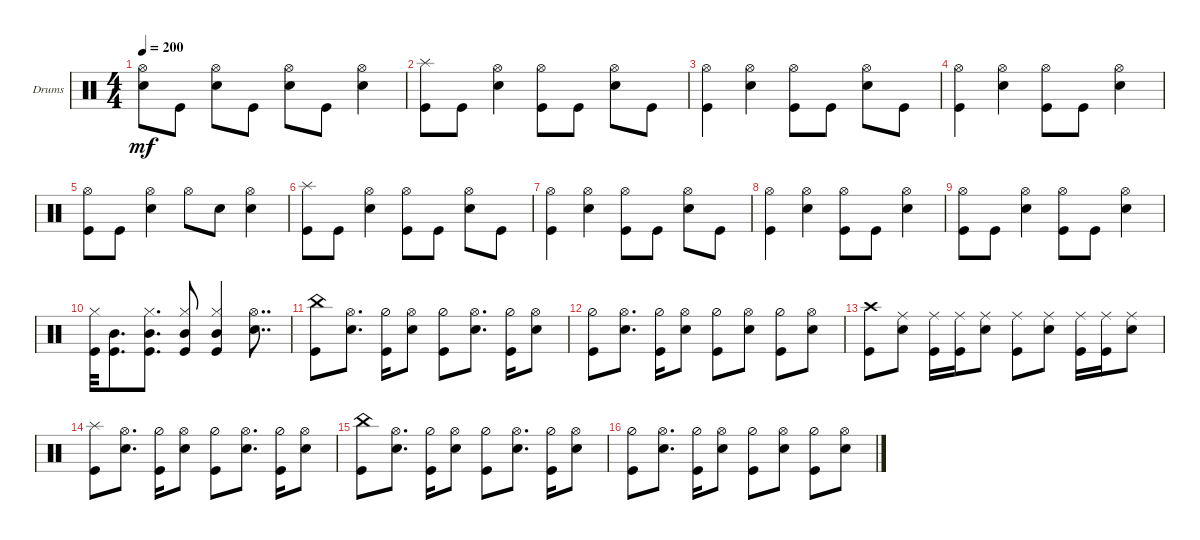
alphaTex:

\defaultSystemsLayout 4
\bracketExtendMode groupsimilarinstruments
\firstSystemTrackNameOrientation horizontal
\otherSystemsTrackNameOrientation horizontal
\track ("Hell on da drums" "Drums") {instrument percussion}
\staff {score}
\articulation defaults
\ts (4 4)
\tempo 200
\clef neutral
\ks c
("Snare (hit) 2" "Hi-Hat (open)").8{dy mf} "Kick (hit)".8 ("Snare (hit) 2" "Hi-Hat (open)").8 "Kick (hit)".8 ("Snare (hit) 2" "Hi-Hat (open)").8 "Kick (hit)".8 ("Snare (hit) 2" "Hi-Hat (open)").4 |
("Kick (hit)" "Splash (hit)").8 "Kick (hit)".8 ("Snare (hit) 2" "Hi-Hat (open)").4 ("Kick (hit)" "Hi-Hat (open)").8 "Kick (hit)".8 ("Snare (hit) 2" "Hi-Hat (open)").8 "Kick (hit)".8 |
("Kick (hit)" "Hi-Hat (open)").4 ("Snare (hit) 2" "Hi-Hat (open)").4 ("Kick (hit)" "Hi-Hat (open)").8 "Kick (hit)".8 ("Snare (hit) 2" "Hi-Hat (open)").8 "Kick (hit)".8 |
("Kick (hit)" "Hi-Hat (open)").4 ("Snare (hit) 2" "Hi-Hat (open)").4 ("Kick (hit)" "Hi-Hat (open)").8 "Kick (hit)".8 ("Snare (hit) 2" "Hi-Hat (open)").4 |
("Kick (hit)" "Hi-Hat (open)").8 "Kick (hit)".8 ("Snare (hit) 2" "Hi-Hat (open)").4 "Hi-Hat (open)".8 "Snare (hit) 2".8 ("Snare (hit) 2" "Hi-Hat (open)").4 |
("Kick (hit)" "Splash (hit)").8 "Kick (hit)".8 ("Snare (hit) 2" "Hi-Hat (open)").4 ("Kick (hit)" "Hi-Hat (open)").8 "Kick (hit)".8 ("Snare (hit) 2" "Hi-Hat (open)").8 "Kick (hit)".8 |
("Kick (hit)" "Hi-Hat (open)").4 ("Snare (hit) 2" "Hi-Hat (open)").4 ("Kick (hit)" "Hi-Hat (open)").8 "Kick (hit)".8 ("Snare (hit) 2" "Hi-Hat (open)").8 "Kick (hit)".8 |
("Kick (hit)" "Hi-Hat (open)").4 ("Snare (hit) 2" "Hi-Hat (open)").4 ("Kick (hit)" "Hi-Hat (open)").8 "Kick (hit)".8 ("Snare (hit) 2" "Hi-Hat (open)").4 |
("Kick (hit)" "Hi-Hat (open)").8 "Kick (hit)".8 ("Snare (hit) 2" "Hi-Hat (open)").4 ("Hi-Hat (open)" "Kick (hit)").8 "Kick (hit)".8 ("Snare (hit) 2" "Hi-Hat (open)").4 |
("Kick (hit)" "Hi-Hat (closed)").32 ("Mid Tom (hit)" "Kick (hit)").8{d} ("Mid Tom (hit)" "Kick (hit)" "Hi-Hat (closed)").8{d} ("Mid Tom (hit)" "Kick (hit)" "Hi-Hat (closed)").8 ("Mid Tom (hit)" "Kick (hit)" "Hi-Hat (closed)").4 ("Snare (hit) 2" "Hi-Hat (open)").8{dd} |
("Kick (hit)" "China (hit)").8 ("Snare (hit) 2" "Hi-Hat (open)").8{d} ("Kick (hit)" "Hi-Hat (half)").16 ("Snare (hit) 2" "Hi-Hat (open)").8 ("Kick (hit)" "Hi-Hat (half)").8 ("Snare (hit) 2" "Hi-Hat (open)").8{d} ("Kick (hit)" "Hi-Hat (half)").16 ("Snare (hit) 2" "Hi-Hat (open)").8 |
("Kick (hit)" "Hi-Hat (half)").8 ("Snare (hit) 2" "Hi-Hat (open)").8{d} ("Kick (hit)" "Hi-Hat (half)").16 ("Snare (hit) 2" "Hi-Hat (open)").8 ("Kick (hit)" "Hi-Hat (half)").8 ("Snare (hit) 2" "Hi-Hat (open)").8 ("Kick (hit)" "Hi-Hat (half)").8 ("Snare (hit) 2" "Hi-Hat (open)").8 |
("Kick (hit)" "Crash high (hit)").8 ("Snare (hit) 2" "Ride (middle)").8 ("Kick (hit)" "Ride (middle)").16 ("Kick (hit)" "Ride (middle)").16 ("Snare (hit) 2" "Ride (middle)").8 ("Kick (hit)" "Ride (middle)").8 ("Snare (hit) 2" "Ride (middle)").8 ("Kick (hit)" "Ride (middle)").16 ("Kick (hit)" "Ride (middle)").16 ("Snare (hit) 2" "Ride (middle)").8 |
("Kick (hit)" "Splash (hit)").8 ("Snare (hit) 2" "Hi-Hat (open)").8{d} ("Kick (hit)" "Hi-Hat (half)").16 ("Snare (hit) 2" "Hi-Hat (open)").8 ("Kick (hit)" "Hi-Hat (half)").8 ("Snare (hit) 2" "Hi-Hat (open)").8{d} ("Kick (hit)" "Hi-Hat (half)").16 ("Snare (hit) 2" "Hi-Hat (open)").8 |
("Kick (hit)" "China (hit)").8 ("Snare (hit) 2" "Hi-Hat (open)").8{d} ("Kick (hit)" "Hi-Hat (half)").16 ("Snare (hit) 2" "Hi-Hat (open)").8 ("Kick (hit)" "Hi-Hat (half)").8 ("Snare (hit) 2" "Hi-Hat (open)").8{d} ("Kick (hit)" "Hi-Hat (half)").16 ("Snare (hit) 2" "Hi-Hat (open)").8 |
("Kick (hit)" "Hi-Hat (half)").8 ("Snare (hit) 2" "Hi-Hat (open)").8{d} ("Kick (hit)" "Hi-Hat (half)").16 ("Snare (hit) 2" "Hi-Hat (open)").8 ("Kick (hit)" "Hi-Hat (half)").8 ("Snare (hit) 2" "Hi-Hat (open)").8 ("Kick (hit)" "Hi-Hat (half)").8 ("Snare (hit) 2" "Hi-Hat (open)").8
